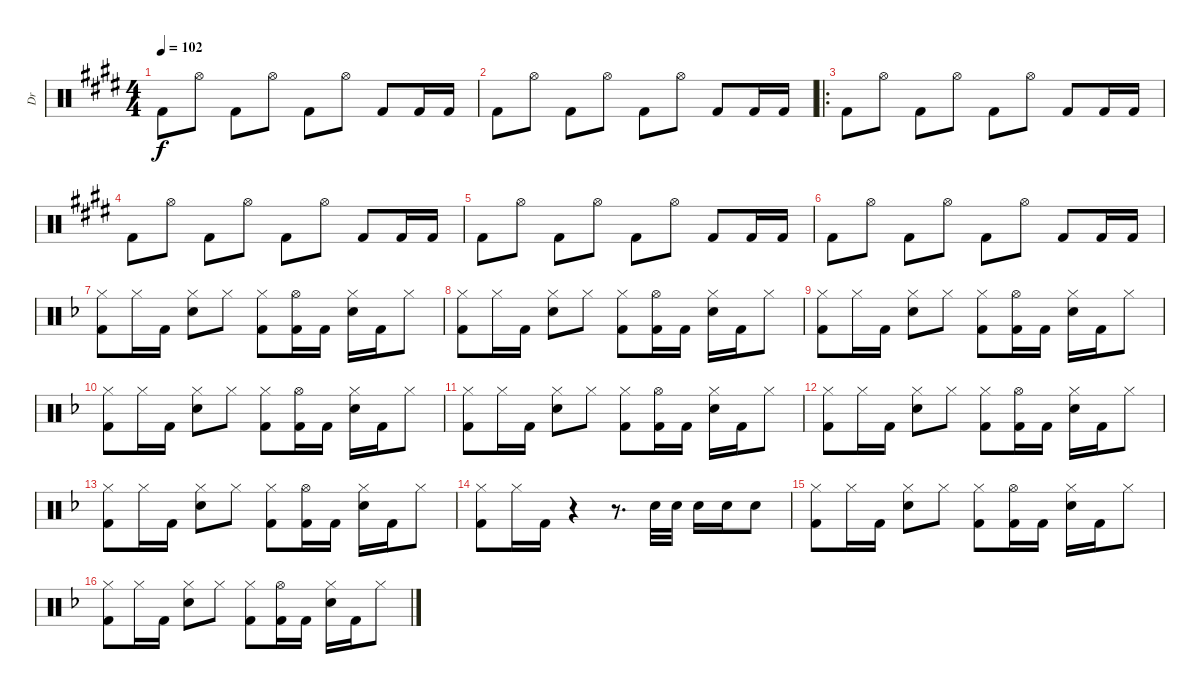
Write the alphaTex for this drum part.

\track ("Dr" "Dr") {instrument percussion}
\staff {score}
\articulation defaults
\ts (4 4)
\tempo 102
\clef neutral
\ks e "Kick (hit) 2".8{dy f} "Hi-Hat (open)".8 "Kick (hit) 2".8 "Hi-Hat (open)".8 "Kick (hit) 2".8 "Hi-Hat (open)".8 "Kick (hit) 2".8 "Kick (hit) 2".16 "Kick (hit) 2".16
|
"Kick (hit) 2".8 "Hi-Hat (open)".8 "Kick (hit) 2".8 "Hi-Hat (open)".8 "Kick (hit) 2".8 "Hi-Hat (open)".8 "Kick (hit) 2".8 "Kick (hit) 2".16 "Kick (hit) 2".16 |
\ro "Kick (hit) 2".8 "Hi-Hat (open)".8 "Kick (hit) 2".8 "Hi-Hat (open)".8 "Kick (hit) 2".8 "Hi-Hat (open)".8 "Kick (hit) 2".8 "Kick (hit) 2".16 "Kick (hit) 2".16
|
"Kick (hit) 2".8 "Hi-Hat (open)".8 "Kick (hit) 2".8 "Hi-Hat (open)".8 "Kick (hit) 2".8 "Hi-Hat (open)".8 "Kick (hit) 2".8 "Kick (hit) 2".16 "Kick (hit) 2".16 |
"Kick (hit) 2".8 "Hi-Hat (open)".8 "Kick (hit) 2".8 "Hi-Hat (open)".8 "Kick (hit) 2".8 "Hi-Hat (open)".8 "Kick (hit) 2".8 "Kick (hit) 2".16 "Kick (hit) 2".16 |
"Kick (hit) 2".8 "Hi-Hat (open)".8 "Kick (hit) 2".8 "Hi-Hat (open)".8 "Kick (hit) 2".8 "Hi-Hat (open)".8 "Kick (hit) 2".8 "Kick (hit) 2".16 "Kick (hit) 2".16 |
\ks f
("Hi-Hat (closed)" "Kick (hit) 2").8 "Hi-Hat (closed)".16 "Kick (hit) 2".16 ("Hi-Hat (closed)" "Electric Snare (hit)").8 "Hi-Hat (closed)".8 ("Hi-Hat (closed)" "Kick (hit) 2").8 ("Hi-Hat (open)" "Kick (hit) 2").16 "Kick (hit) 2".16 ("Hi-Hat (closed)" "Electric Snare (hit)").16 "Kick (hit) 2".16 "Hi-Hat (closed)".8 |
("Hi-Hat (closed)" "Kick (hit) 2").8 "Hi-Hat (closed)".16 "Kick (hit) 2".16 ("Hi-Hat (closed)" "Electric Snare (hit)").8 "Hi-Hat (closed)".8 ("Hi-Hat (closed)" "Kick (hit) 2").8 ("Hi-Hat (open)" "Kick (hit) 2").16 "Kick (hit) 2".16 ("Hi-Hat (closed)" "Electric Snare (hit)").16 "Kick (hit) 2".16 "Hi-Hat (closed)".8 |
("Hi-Hat (closed)" "Kick (hit) 2").8 "Hi-Hat (closed)".16 "Kick (hit) 2".16 ("Hi-Hat (closed)" "Electric Snare (hit)").8 "Hi-Hat (closed)".8 ("Hi-Hat (closed)" "Kick (hit) 2").8 ("Hi-Hat (open)" "Kick (hit) 2").16 "Kick (hit) 2".16 ("Hi-Hat (closed)" "Electric Snare (hit)").16 "Kick (hit) 2".16 "Hi-Hat (closed)".8 |
("Hi-Hat (closed)" "Kick (hit) 2").8 "Hi-Hat (closed)".16 "Kick (hit) 2".16 ("Hi-Hat (closed)" "Electric Snare (hit)").8 "Hi-Hat (closed)".8 ("Hi-Hat (closed)" "Kick (hit) 2").8 ("Hi-Hat (open)" "Kick (hit) 2").16 "Kick (hit) 2".16 ("Hi-Hat (closed)" "Electric Snare (hit)").16 "Kick (hit) 2".16 "Hi-Hat (closed)".8 |
("Hi-Hat (closed)" "Kick (hit) 2").8 "Hi-Hat (closed)".16 "Kick (hit) 2".16 ("Hi-Hat (closed)" "Electric Snare (hit)").8 "Hi-Hat (closed)".8 ("Hi-Hat (closed)" "Kick (hit) 2").8 ("Hi-Hat (open)" "Kick (hit) 2").16 "Kick (hit) 2".16 ("Hi-Hat (closed)" "Electric Snare (hit)").16 "Kick (hit) 2".16 "Hi-Hat (closed)".8 |
("Hi-Hat (closed)" "Kick (hit) 2").8 "Hi-Hat (closed)".16 "Kick (hit) 2".16 ("Hi-Hat (closed)" "Electric Snare (hit)").8 "Hi-Hat (closed)".8 ("Hi-Hat (closed)" "Kick (hit) 2").8 ("Hi-Hat (open)" "Kick (hit) 2").16 "Kick (hit) 2".16 ("Hi-Hat (closed)" "Electric Snare (hit)").16 "Kick (hit) 2".16 "Hi-Hat (closed)".8 |
("Hi-Hat (closed)" "Kick (hit) 2").8 "Hi-Hat (closed)".16 "Kick (hit) 2".16 ("Hi-Hat (closed)" "Electric Snare (hit)").8 "Hi-Hat (closed)".8 ("Hi-Hat (closed)" "Kick (hit) 2").8 ("Hi-Hat (open)" "Kick (hit) 2").16 "Kick (hit) 2".16 ("Hi-Hat (closed)" "Electric Snare (hit)").16 "Kick (hit) 2".16 "Hi-Hat (closed)".8 |
("Hi-Hat (closed)" "Kick (hit) 2").8 "Hi-Hat (closed)".16 "Kick (hit) 2".16 r.4 r.8{d} "Electric Snare (hit)".32 "Electric Snare (hit)".32 "Electric Snare (hit)".16 "Electric Snare (hit)".16 "Electric Snare (hit)".8 |
("Hi-Hat (closed)" "Kick (hit) 2").8 "Hi-Hat (closed)".16 "Kick (hit) 2".16 ("Hi-Hat (closed)" "Electric Snare (hit)").8 "Hi-Hat (closed)".8 ("Hi-Hat (closed)" "Kick (hit) 2").8 ("Hi-Hat (open)" "Kick (hit) 2").16 "Kick (hit) 2".16 ("Hi-Hat (closed)" "Electric Snare (hit)").16 "Kick (hit) 2".16 "Hi-Hat (closed)".8 |
("Hi-Hat (closed)" "Kick (hit) 2").8 "Hi-Hat (closed)".16 "Kick (hit) 2".16 ("Hi-Hat (closed)" "Electric Snare (hit)").8 "Hi-Hat (closed)".8 ("Hi-Hat (closed)" "Kick (hit) 2").8 ("Hi-Hat (open)" "Kick (hit) 2").16 "Kick (hit) 2".16 ("Hi-Hat (closed)" "Electric Snare (hit)").16 "Kick (hit) 2".16 "Hi-Hat (closed)".8
